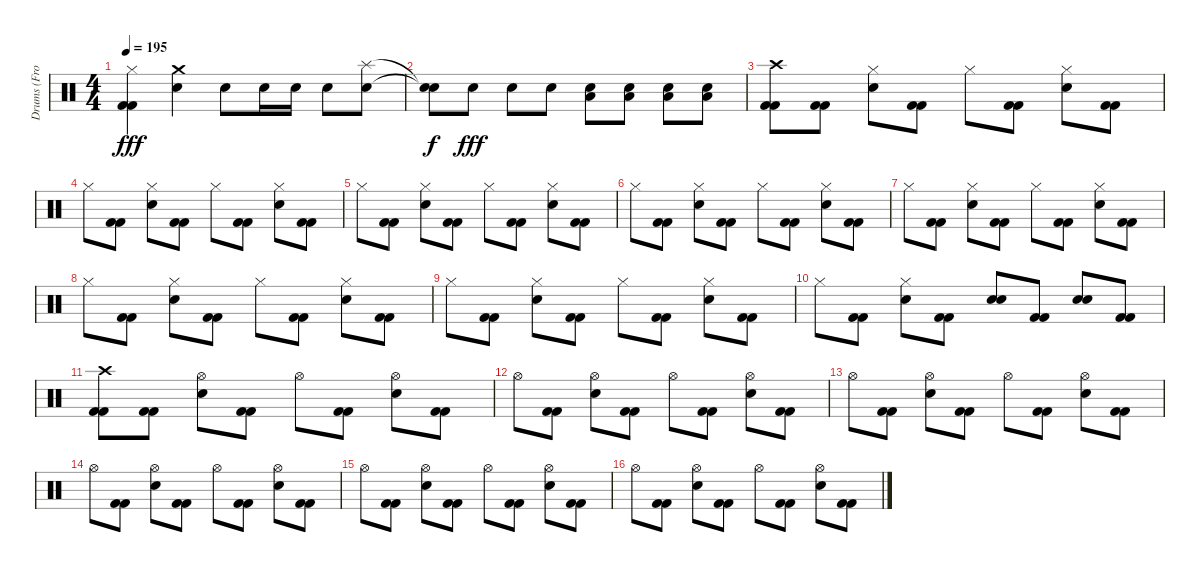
\track ("Drums (From Other GP)" "Drums (Fro") {instrument percussion}
\staff {score}
\articulation defaults
\ts (4 4)
\tempo 195
\clef neutral
\ks c
("Hi-Hat (closed)" "Kick (hit) 2" "Kick (hit) 2").4{dy fff} ("Crash medium (hit)" "Electric Snare (hit)").4 "Electric Snare (hit)".8 "Electric Snare (hit)".16 "Electric Snare (hit)".16 "Electric Snare (hit)".8 ("Splash (hit)" "Electric Snare (hit)").8 |
("Snare (hit)"{t} "Snare (hit)"{t}).8{dy f} "Electric Snare (hit)".8{dy fff} "Electric Snare (hit)".8 "Electric Snare (hit)".8 ("Low Floor Tom (hit)" "Electric Snare (hit)").8 ("Low Floor Tom (hit)" "Electric Snare (hit)").8 ("Low Floor Tom (hit)" "Electric Snare (hit)").8 ("Low Floor Tom (hit)" "Electric Snare (hit)").8 |
("Crash high (hit)" "Kick (hit) 2" "Kick (hit) 2").8 ("Kick (hit) 2" "Kick (hit) 2").8 ("Hi-Hat (closed)" "Electric Snare (hit)").8 ("Kick (hit) 2" "Kick (hit) 2").8 "Hi-Hat (closed)".8 ("Kick (hit) 2" "Kick (hit) 2").8 ("Hi-Hat (closed)" "Electric Snare (hit)").8 ("Kick (hit) 2" "Kick (hit) 2").8 |
"Hi-Hat (closed)".8 ("Kick (hit) 2" "Kick (hit) 2").8 ("Hi-Hat (closed)" "Electric Snare (hit)").8 ("Kick (hit) 2" "Kick (hit) 2").8 "Hi-Hat (closed)".8 ("Kick (hit) 2" "Kick (hit) 2").8 ("Hi-Hat (closed)" "Electric Snare (hit)").8 ("Kick (hit) 2" "Kick (hit) 2").8 |
"Hi-Hat (closed)".8 ("Kick (hit) 2" "Kick (hit) 2").8 ("Hi-Hat (closed)" "Electric Snare (hit)").8 ("Kick (hit) 2" "Kick (hit) 2").8 "Hi-Hat (closed)".8 ("Kick (hit) 2" "Kick (hit) 2").8 ("Hi-Hat (closed)" "Electric Snare (hit)").8 ("Kick (hit) 2" "Kick (hit) 2").8 |
"Hi-Hat (closed)".8 ("Kick (hit) 2" "Kick (hit) 2").8 ("Hi-Hat (closed)" "Electric Snare (hit)").8 ("Kick (hit) 2" "Kick (hit) 2").8 "Hi-Hat (closed)".8 ("Kick (hit) 2" "Kick (hit) 2").8 ("Hi-Hat (closed)" "Electric Snare (hit)").8 ("Kick (hit) 2" "Kick (hit) 2").8 |
"Hi-Hat (closed)".8 ("Kick (hit) 2" "Kick (hit) 2").8 ("Hi-Hat (closed)" "Electric Snare (hit)").8 ("Kick (hit) 2" "Kick (hit) 2").8 "Hi-Hat (closed)".8 ("Kick (hit) 2" "Kick (hit) 2").8 ("Hi-Hat (closed)" "Electric Snare (hit)").8 ("Kick (hit) 2" "Kick (hit) 2").8 |
"Hi-Hat (closed)".8 ("Kick (hit) 2" "Kick (hit) 2").8 ("Hi-Hat (closed)" "Electric Snare (hit)").8 ("Kick (hit) 2" "Kick (hit) 2").8 "Hi-Hat (closed)".8 ("Kick (hit) 2" "Kick (hit) 2").8 ("Hi-Hat (closed)" "Electric Snare (hit)").8 ("Kick (hit) 2" "Kick (hit) 2").8 |
"Hi-Hat (closed)".8 ("Kick (hit) 2" "Kick (hit) 2").8 ("Hi-Hat (closed)" "Electric Snare (hit)").8 ("Kick (hit) 2" "Kick (hit) 2").8 "Hi-Hat (closed)".8 ("Kick (hit) 2" "Kick (hit) 2").8 ("Hi-Hat (closed)" "Electric Snare (hit)").8 ("Kick (hit) 2" "Kick (hit) 2").8 |
"Hi-Hat (closed)".8 ("Kick (hit) 2" "Kick (hit) 2").8 ("Hi-Hat (closed)" "Electric Snare (hit)").8 ("Kick (hit) 2" "Kick (hit) 2").8 ("Electric Snare (hit)" "Electric Snare (hit)").8 ("Kick (hit) 2" "Kick (hit) 2").8 ("Electric Snare (hit)" "Electric Snare (hit)").8 ("Kick (hit) 2" "Kick (hit) 2").8 |
("Crash high (hit)" "Kick (hit) 2" "Kick (hit) 2").8 ("Kick (hit) 2" "Kick (hit) 2").8 ("Hi-Hat (open)" "Electric Snare (hit)").8 ("Kick (hit) 2" "Kick (hit) 2").8 "Hi-Hat (open)".8 ("Kick (hit) 2" "Kick (hit) 2").8 ("Hi-Hat (open)" "Electric Snare (hit)").8 ("Kick (hit) 2" "Kick (hit) 2").8 |
"Hi-Hat (open)".8 ("Kick (hit) 2" "Kick (hit) 2").8 ("Hi-Hat (open)" "Electric Snare (hit)").8 ("Kick (hit) 2" "Kick (hit) 2").8 "Hi-Hat (open)".8 ("Kick (hit) 2" "Kick (hit) 2").8 ("Hi-Hat (open)" "Electric Snare (hit)").8 ("Kick (hit) 2" "Kick (hit) 2").8 |
"Hi-Hat (open)".8 ("Kick (hit) 2" "Kick (hit) 2").8 ("Hi-Hat (open)" "Electric Snare (hit)").8 ("Kick (hit) 2" "Kick (hit) 2").8 "Hi-Hat (open)".8 ("Kick (hit) 2" "Kick (hit) 2").8 ("Hi-Hat (open)" "Electric Snare (hit)").8 ("Kick (hit) 2" "Kick (hit) 2").8 |
"Hi-Hat (open)".8 ("Kick (hit) 2" "Kick (hit) 2").8 ("Hi-Hat (open)" "Electric Snare (hit)").8 ("Kick (hit) 2" "Kick (hit) 2").8 "Hi-Hat (open)".8 ("Kick (hit) 2" "Kick (hit) 2").8 ("Hi-Hat (open)" "Electric Snare (hit)").8 ("Kick (hit) 2" "Kick (hit) 2").8 |
"Hi-Hat (open)".8 ("Kick (hit) 2" "Kick (hit) 2").8 ("Hi-Hat (open)" "Electric Snare (hit)").8 ("Kick (hit) 2" "Kick (hit) 2").8 "Hi-Hat (open)".8 ("Kick (hit) 2" "Kick (hit) 2").8 ("Hi-Hat (open)" "Electric Snare (hit)").8 ("Kick (hit) 2" "Kick (hit) 2").8 |
"Hi-Hat (open)".8 ("Kick (hit) 2" "Kick (hit) 2").8 ("Hi-Hat (open)" "Electric Snare (hit)").8 ("Kick (hit) 2" "Kick (hit) 2").8 "Hi-Hat (open)".8 ("Kick (hit) 2" "Kick (hit) 2").8 ("Hi-Hat (open)" "Electric Snare (hit)").8 ("Kick (hit) 2" "Kick (hit) 2").8
